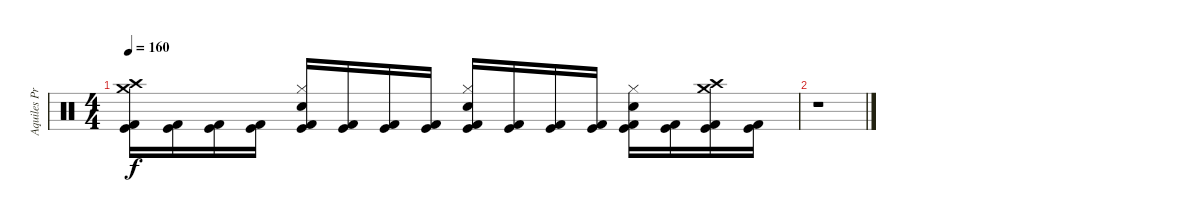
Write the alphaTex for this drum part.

\track ("Aquiles Priester" "Aquiles Pr") {instrument percussion}
\staff {score}
\articulation defaults
\ts (4 4)
\tempo 160
\clef neutral
\ks c
("Crash medium (hit)" "Crash high (hit)" "Kick (hit) 2" "Kick (hit)").16{dy f} ("Kick (hit) 2" "Kick (hit)").16 ("Kick (hit) 2" "Kick (hit)").16 ("Kick (hit) 2" "Kick (hit)").16 ("Hi-Hat (closed)" "Electric Snare (hit)" "Kick (hit) 2" "Kick (hit)").16 ("Kick (hit) 2" "Kick (hit)").16 ("Kick (hit) 2" "Kick (hit)").16 ("Kick (hit) 2" "Kick (hit)").16 ("Hi-Hat (closed)" "Electric Snare (hit)" "Kick (hit) 2" "Kick (hit)").16 ("Kick (hit) 2" "Kick (hit)").16 ("Kick (hit) 2" "Kick (hit)").16 ("Kick (hit) 2" "Kick (hit)").16 ("Hi-Hat (closed)" "Electric Snare (hit)" "Kick (hit) 2" "Kick (hit)").16 ("Kick (hit) 2" "Kick (hit)").16 ("Crash medium (hit)" "Crash high (hit)" "Kick (hit) 2" "Kick (hit)").16 ("Kick (hit) 2" "Kick (hit)").16 |
r.1
